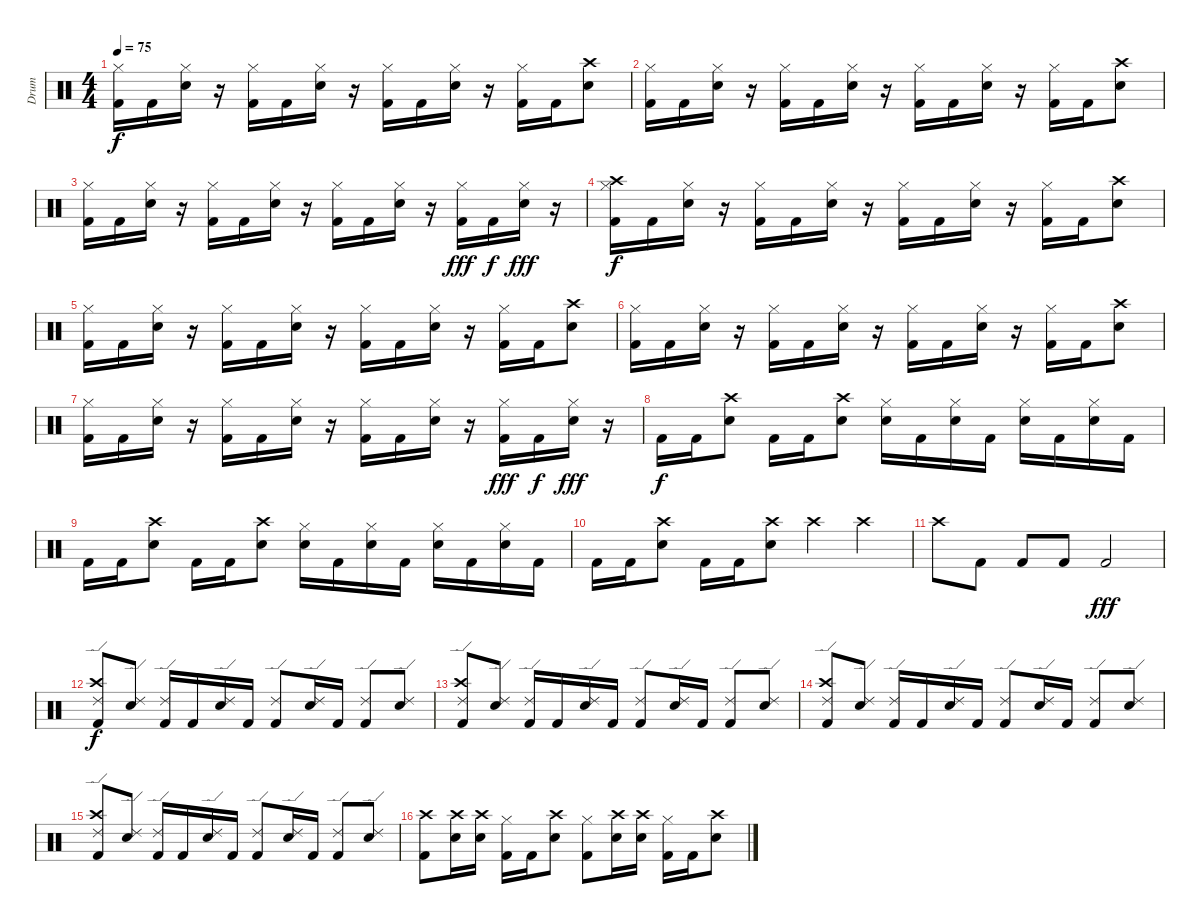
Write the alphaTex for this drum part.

\track ("Drum" "Drum") {instrument percussion}
\staff {score}
\articulation defaults
\ts (4 4)
\tempo 75
\clef neutral
\ks c
("Hi-Hat (closed)" "Kick (hit) 2").16{dy f} "Kick (hit) 2".16 ("Hi-Hat (closed)" "Electric Snare (hit)").16 r.16 ("Hi-Hat (closed)" "Kick (hit) 2").16 "Kick (hit) 2".16 ("Hi-Hat (closed)" "Electric Snare (hit)").16 r.16 ("Hi-Hat (closed)" "Kick (hit) 2").16 "Kick (hit) 2".16 ("Hi-Hat (closed)" "Electric Snare (hit)").16 r.16 ("Hi-Hat (closed)" "Kick (hit) 2").16 "Kick (hit) 2".16 ("Crash high (hit)" "Electric Snare (hit)").8 |
("Hi-Hat (closed)" "Kick (hit) 2").16 "Kick (hit) 2".16 ("Hi-Hat (closed)" "Electric Snare (hit)").16 r.16 ("Hi-Hat (closed)" "Kick (hit) 2").16 "Kick (hit) 2".16 ("Hi-Hat (closed)" "Electric Snare (hit)").16 r.16 ("Hi-Hat (closed)" "Kick (hit) 2").16 "Kick (hit) 2".16 ("Hi-Hat (closed)" "Electric Snare (hit)").16 r.16 ("Hi-Hat (closed)" "Kick (hit) 2").16 "Kick (hit) 2".16 ("Crash high (hit)" "Electric Snare (hit)").8 |
("Hi-Hat (closed)" "Kick (hit) 2").16 "Kick (hit) 2".16 ("Hi-Hat (closed)" "Electric Snare (hit)").16 r.16 ("Hi-Hat (closed)" "Kick (hit) 2").16 "Kick (hit) 2".16 ("Hi-Hat (closed)" "Electric Snare (hit)").16 r.16 ("Hi-Hat (closed)" "Kick (hit) 2").16 "Kick (hit) 2".16 ("Hi-Hat (closed)" "Electric Snare (hit)").16 r.16 ("Hi-Hat (closed)" "Kick (hit) 2").16{dy fff} "Kick (hit) 2".16{dy f} ("Hi-Hat (closed)" "Electric Snare (hit)").16{dy fff} r.16 |
("Hi-Hat (closed)" "Crash high (hit)" "Kick (hit) 2").16{dy f} "Kick (hit) 2".16 ("Hi-Hat (closed)" "Electric Snare (hit)").16 r.16 ("Hi-Hat (closed)" "Kick (hit) 2").16 "Kick (hit) 2".16 ("Hi-Hat (closed)" "Electric Snare (hit)").16 r.16 ("Hi-Hat (closed)" "Kick (hit) 2").16 "Kick (hit) 2".16 ("Hi-Hat (closed)" "Electric Snare (hit)").16 r.16 ("Hi-Hat (closed)" "Kick (hit) 2").16 "Kick (hit) 2".16 ("Crash high (hit)" "Electric Snare (hit)").8 |
("Hi-Hat (closed)" "Kick (hit) 2").16 "Kick (hit) 2".16 ("Hi-Hat (closed)" "Electric Snare (hit)").16 r.16 ("Hi-Hat (closed)" "Kick (hit) 2").16 "Kick (hit) 2".16 ("Hi-Hat (closed)" "Electric Snare (hit)").16 r.16 ("Hi-Hat (closed)" "Kick (hit) 2").16 "Kick (hit) 2".16 ("Hi-Hat (closed)" "Electric Snare (hit)").16 r.16 ("Hi-Hat (closed)" "Kick (hit) 2").16 "Kick (hit) 2".16 ("Crash high (hit)" "Electric Snare (hit)").8 |
("Hi-Hat (closed)" "Kick (hit) 2").16 "Kick (hit) 2".16 ("Hi-Hat (closed)" "Electric Snare (hit)").16 r.16 ("Hi-Hat (closed)" "Kick (hit) 2").16 "Kick (hit) 2".16 ("Hi-Hat (closed)" "Electric Snare (hit)").16 r.16 ("Hi-Hat (closed)" "Kick (hit) 2").16 "Kick (hit) 2".16 ("Hi-Hat (closed)" "Electric Snare (hit)").16 r.16 ("Hi-Hat (closed)" "Kick (hit) 2").16 "Kick (hit) 2".16 ("Crash high (hit)" "Electric Snare (hit)").8 |
("Hi-Hat (closed)" "Kick (hit) 2").16 "Kick (hit) 2".16 ("Hi-Hat (closed)" "Electric Snare (hit)").16 r.16 ("Hi-Hat (closed)" "Kick (hit) 2").16 "Kick (hit) 2".16 ("Hi-Hat (closed)" "Electric Snare (hit)").16 r.16 ("Hi-Hat (closed)" "Kick (hit) 2").16 "Kick (hit) 2".16 ("Hi-Hat (closed)" "Electric Snare (hit)").16 r.16 ("Hi-Hat (closed)" "Kick (hit) 2").16{dy fff} "Kick (hit) 2".16{dy f} ("Hi-Hat (closed)" "Electric Snare (hit)").16{dy fff} r.16 |
"Kick (hit) 2".16{dy f} "Kick (hit) 2".16 ("Crash high (hit)" "Electric Snare (hit)").8 "Kick (hit) 2".16 "Kick (hit) 2".16 ("Crash high (hit)" "Electric Snare (hit)").8 ("Hi-Hat (closed)" "Electric Snare (hit)").16 "Kick (hit) 2".16 ("Hi-Hat (closed)" "Electric Snare (hit)").16 "Kick (hit) 2".16 ("Hi-Hat (closed)" "Electric Snare (hit)").16 "Kick (hit) 2".16 ("Hi-Hat (closed)" "Electric Snare (hit)").16 "Kick (hit) 2".16 |
"Kick (hit) 2".16 "Kick (hit) 2".16 ("Crash high (hit)" "Electric Snare (hit)").8 "Kick (hit) 2".16 "Kick (hit) 2".16 ("Crash high (hit)" "Electric Snare (hit)").8 ("Hi-Hat (closed)" "Electric Snare (hit)").16 "Kick (hit) 2".16 ("Hi-Hat (closed)" "Electric Snare (hit)").16 "Kick (hit) 2".16 ("Hi-Hat (closed)" "Electric Snare (hit)").16 "Kick (hit) 2".16 ("Hi-Hat (closed)" "Electric Snare (hit)").16 "Kick (hit) 2".16 |
"Kick (hit) 2".16 "Kick (hit) 2".16 ("Crash high (hit)" "Electric Snare (hit)").8 "Kick (hit) 2".16 "Kick (hit) 2".16 ("Crash high (hit)" "Electric Snare (hit)").8 "Crash high (hit)".4 "Crash high (hit)".4 |
"Crash high (hit)".8 "Kick (hit) 2".8 "Kick (hit) 2".8 "Kick (hit) 2".8 "Kick (hit) 2".2{dy fff} |
("Ride (edge) 2" "Kick (hit) 2" "Crash high (hit)").8{dy f} ("Ride (edge) 2" "Electric Snare (hit)").8 ("Ride (edge) 2" "Kick (hit) 2").16 "Kick (hit) 2".16 ("Ride (edge) 2" "Electric Snare (hit)").16 "Kick (hit) 2".16 ("Ride (edge) 2" "Kick (hit) 2").8 ("Ride (edge) 2" "Electric Snare (hit)").16 "Kick (hit) 2".16 ("Ride (edge) 2" "Kick (hit) 2").8 ("Ride (edge) 2" "Electric Snare (hit)").8 |
("Ride (edge) 2" "Kick (hit) 2" "Crash high (hit)").8 ("Ride (edge) 2" "Electric Snare (hit)").8 ("Ride (edge) 2" "Kick (hit) 2").16 "Kick (hit) 2".16 ("Ride (edge) 2" "Electric Snare (hit)").16 "Kick (hit) 2".16 ("Ride (edge) 2" "Kick (hit) 2").8 ("Ride (edge) 2" "Electric Snare (hit)").16 "Kick (hit) 2".16 ("Ride (edge) 2" "Kick (hit) 2").8 ("Ride (edge) 2" "Electric Snare (hit)").8 |
("Ride (edge) 2" "Kick (hit) 2" "Crash high (hit)").8 ("Ride (edge) 2" "Electric Snare (hit)").8 ("Ride (edge) 2" "Kick (hit) 2").16 "Kick (hit) 2".16 ("Ride (edge) 2" "Electric Snare (hit)").16 "Kick (hit) 2".16 ("Ride (edge) 2" "Kick (hit) 2").8 ("Ride (edge) 2" "Electric Snare (hit)").16 "Kick (hit) 2".16 ("Ride (edge) 2" "Kick (hit) 2").8 ("Ride (edge) 2" "Electric Snare (hit)").8 |
("Ride (edge) 2" "Kick (hit) 2" "Crash high (hit)").8 ("Ride (edge) 2" "Electric Snare (hit)").8 ("Ride (edge) 2" "Kick (hit) 2").16 "Kick (hit) 2".16 ("Ride (edge) 2" "Electric Snare (hit)").16 "Kick (hit) 2".16 ("Ride (edge) 2" "Kick (hit) 2").8 ("Ride (edge) 2" "Electric Snare (hit)").16 "Kick (hit) 2".16 ("Ride (edge) 2" "Kick (hit) 2").8 ("Ride (edge) 2" "Electric Snare (hit)").8 |
("Crash high (hit)" "Kick (hit) 2").8 ("Crash high (hit)" "Electric Snare (hit)").16 ("Crash high (hit)" "Electric Snare (hit)").16 ("Hi-Hat (closed)" "Kick (hit) 2").16 "Kick (hit) 2".16 ("Crash high (hit)" "Electric Snare (hit)").8 ("Hi-Hat (closed)" "Kick (hit) 2").8 ("Crash high (hit)" "Electric Snare (hit)").16 ("Crash high (hit)" "Electric Snare (hit)").16 ("Hi-Hat (closed)" "Kick (hit) 2").16 "Kick (hit) 2".16 ("Crash high (hit)" "Electric Snare (hit)").8
